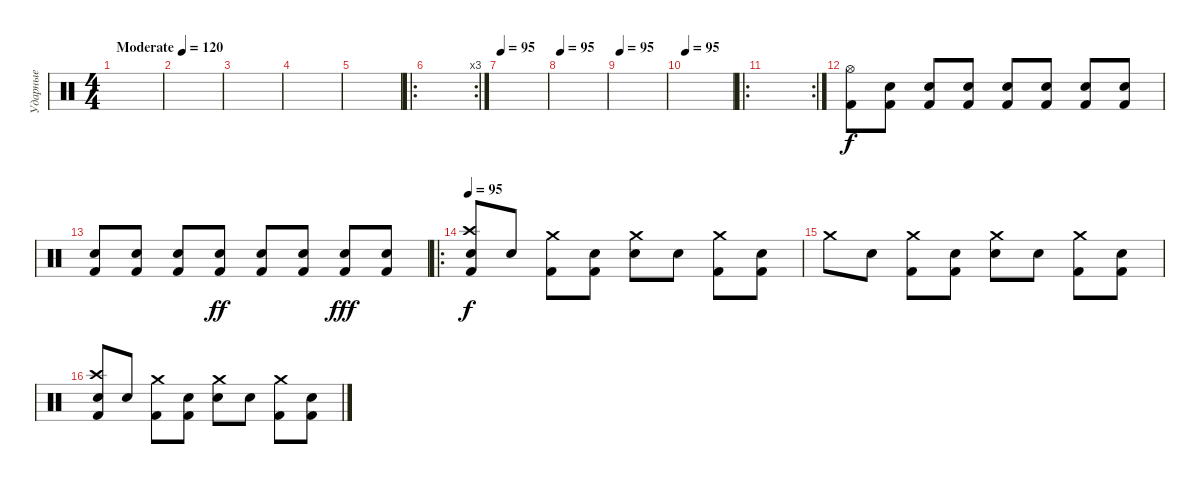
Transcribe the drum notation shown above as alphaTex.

\track ("Ударные" "Ударные") {instrument percussion}
\staff {score}
\articulation defaults
\ts (4 4)
\tempo (120 "Moderate")
\tempo 95
\tempo (120 "Moderate")
\clef neutral
\ks c
|
|
|
|
|
\ro
\rc 3
|
\tempo 95
|
\tempo 95
|
\tempo 95
|
\tempo 95
|
\ro
\rc 2
|
("Hi-Hat (open)" "Kick (hit) 2").8 ("Electric Snare (hit)" "Kick (hit) 2").8 ("Electric Snare (hit)" "Kick (hit) 2").8 ("Electric Snare (hit)" "Kick (hit) 2").8 ("Electric Snare (hit)" "Kick (hit) 2").8 ("Electric Snare (hit)" "Kick (hit) 2").8 ("Electric Snare (hit)" "Kick (hit) 2").8 ("Electric Snare (hit)" "Kick (hit) 2").8 |
("Electric Snare (hit)" "Kick (hit) 2").8 ("Electric Snare (hit)" "Kick (hit) 2").8 ("Electric Snare (hit)" "Kick (hit) 2").8 ("Electric Snare (hit)" "Kick (hit) 2").8{dy ff} ("Electric Snare (hit)" "Kick (hit) 2").8 ("Electric Snare (hit)" "Kick (hit) 2").8 ("Electric Snare (hit)" "Kick (hit) 2").8{dy fff} ("Electric Snare (hit)" "Kick (hit) 2").8 |
\ro
\tempo 95
("Crash high (hit)" "Kick (hit) 2" "Snare (hit) 2").8{dy f} "Snare (hit)".8 ("Crash medium (hit)" "Kick (hit) 2").8 ("Snare (hit)" "Kick (hit) 2").8 ("Crash medium (hit)" "Electric Snare (hit)").8 "Snare (hit)".8 ("Crash medium (hit)" "Kick (hit) 2").8 ("Snare (hit)" "Kick (hit) 2").8 |
"Crash medium (hit)".8 "Snare (hit)".8 ("Crash medium (hit)" "Kick (hit) 2").8 ("Snare (hit)" "Kick (hit) 2").8 ("Crash medium (hit)" "Electric Snare (hit)").8 "Snare (hit)".8 ("Crash medium (hit)" "Kick (hit) 2").8 ("Snare (hit)" "Kick (hit) 2").8 |
("Crash high (hit)" "Kick (hit) 2" "Snare (hit) 2").8 "Snare (hit)".8 ("Crash medium (hit)" "Kick (hit) 2").8 ("Snare (hit)" "Kick (hit) 2").8 ("Crash medium (hit)" "Electric Snare (hit)").8 "Snare (hit)".8 ("Crash medium (hit)" "Kick (hit) 2").8 ("Snare (hit)" "Kick (hit) 2").8
